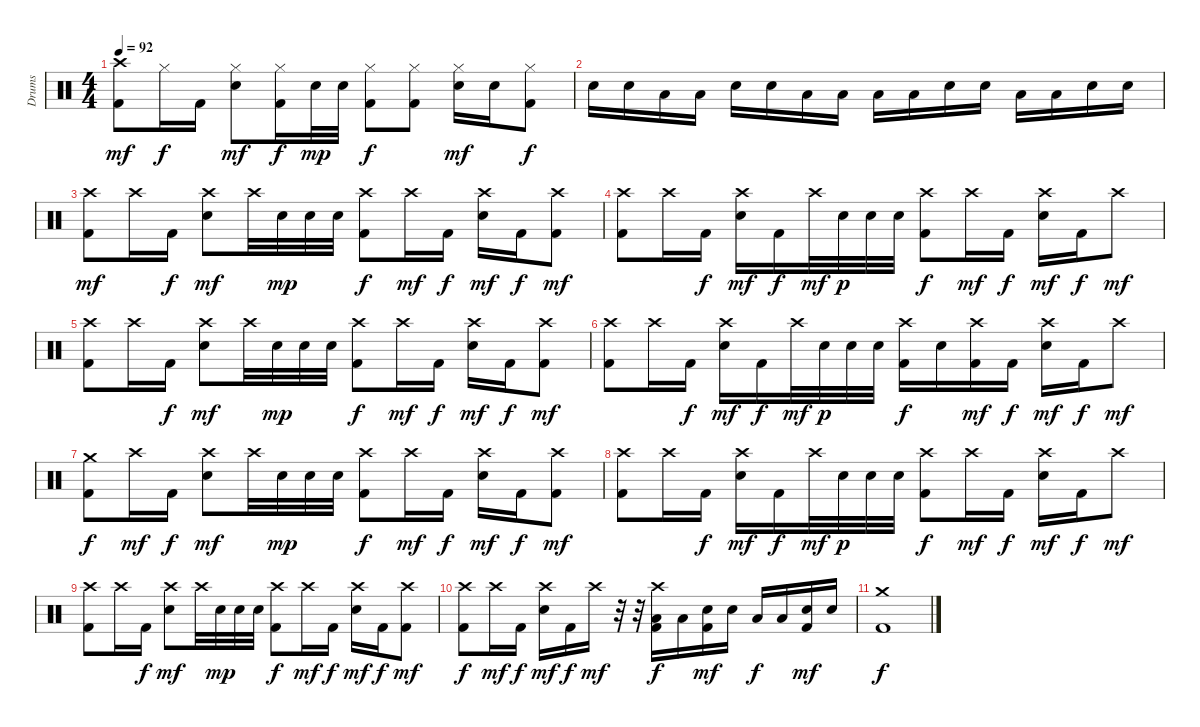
\track ("Drums" "Drums") {instrument percussion}
\staff {score}
\articulation defaults
\ts (4 4)
\tempo 92
\clef neutral
\ks c
("Crash high (hit)" "Kick (hit) 2").8{dy mf} "Hi-Hat (closed)".16{dy f} "Kick (hit) 2".16 ("Hi-Hat (closed)" "Snare (hit) 2").8{dy mf} ("Hi-Hat (closed)" "Kick (hit) 2").16{dy f} "Snare (hit) 2".32{dy mp} "Snare (hit) 2".32 ("Hi-Hat (closed)" "Kick (hit) 2").8{dy f} ("Hi-Hat (closed)" "Kick (hit) 2").8 ("Hi-Hat (closed)" "Snare (hit) 2").16{dy mf} "Snare (hit) 2".16 ("Hi-Hat (closed)" "Kick (hit) 2").8{dy f} |
"Snare (hit) 2".16 "Snare (hit) 2".16 "Low Tom (hit)".16 "Low Tom (hit)".16 "Snare (hit) 2".16 "Snare (hit) 2".16 "Low Tom (hit)".16 "Low Tom (hit)".16 "Low Tom (hit)".16 "Low Tom (hit)".16 "Snare (hit) 2".16 "Snare (hit) 2".16 "Low Tom (hit)".16 "Low Tom (hit)".16 "Snare (hit) 2".16 "Snare (hit) 2".16 |
("Crash high (hit)" "Kick (hit) 2").8{dy mf} "Crash high (hit)".16 "Kick (hit) 2".16{dy f} ("Crash high (hit)" "Snare (hit) 2").8{dy mf} "Crash high (hit)".32 "Snare (hit) 2".32{dy mp} "Snare (hit) 2".32 "Snare (hit) 2".32 ("Crash high (hit)" "Kick (hit) 2").8{dy f} "Crash high (hit)".16{dy mf} "Kick (hit) 2".16{dy f} ("Crash high (hit)" "Snare (hit) 2").16{dy mf} "Kick (hit) 2".16{dy f} ("Crash high (hit)" "Kick (hit) 2").8{dy mf} |
("Crash high (hit)" "Kick (hit) 2").8 "Crash high (hit)".16 "Kick (hit) 2".16{dy f} ("Crash high (hit)" "Snare (hit) 2").16{dy mf} "Kick (hit) 2".16{dy f} "Crash high (hit)".32{dy mf} "Snare (hit) 2".32{dy p} "Snare (hit) 2".32 "Snare (hit) 2".32 ("Crash high (hit)" "Kick (hit) 2").8{dy f} "Crash high (hit)".16{dy mf} "Kick (hit) 2".16{dy f} ("Crash high (hit)" "Snare (hit) 2").16{dy mf} "Kick (hit) 2".16{dy f} "Crash high (hit)".8{dy mf} |
("Crash high (hit)" "Kick (hit) 2").8 "Crash high (hit)".16 "Kick (hit) 2".16{dy f} ("Crash high (hit)" "Snare (hit) 2").8{dy mf} "Crash high (hit)".32 "Snare (hit) 2".32{dy mp} "Snare (hit) 2".32 "Snare (hit) 2".32 ("Crash high (hit)" "Kick (hit) 2").8{dy f} "Crash high (hit)".16{dy mf} "Kick (hit) 2".16{dy f} ("Crash high (hit)" "Snare (hit) 2").16{dy mf} "Kick (hit) 2".16{dy f} ("Crash high (hit)" "Kick (hit) 2").8{dy mf} |
("Crash high (hit)" "Kick (hit) 2").8 "Crash high (hit)".16 "Kick (hit) 2".16{dy f} ("Crash high (hit)" "Snare (hit) 2").16{dy mf} "Kick (hit) 2".16{dy f} "Crash high (hit)".32{dy mf} "Snare (hit) 2".32{dy p} "Snare (hit) 2".32 "Snare (hit) 2".32 ("Crash high (hit)" "Kick (hit) 2").16{dy f} "Snare (hit) 2".16 ("Crash high (hit)" "Kick (hit) 2").16{dy mf} "Kick (hit) 2".16{dy f} ("Crash high (hit)" "Snare (hit) 2").16{dy mf} "Kick (hit) 2".16{dy f} "Crash high (hit)".8{dy mf} |
("Crash medium (hit)" "Kick (hit) 2").8{dy f} "Crash high (hit)".16{dy mf} "Kick (hit) 2".16{dy f} ("Crash high (hit)" "Snare (hit) 2").8{dy mf} "Crash high (hit)".32 "Snare (hit) 2".32{dy mp} "Snare (hit) 2".32 "Snare (hit) 2".32 ("Crash high (hit)" "Kick (hit) 2").8{dy f} "Crash high (hit)".16{dy mf} "Kick (hit) 2".16{dy f} ("Crash high (hit)" "Snare (hit) 2").16{dy mf} "Kick (hit) 2".16{dy f} ("Crash high (hit)" "Kick (hit) 2").8{dy mf} |
("Crash high (hit)" "Kick (hit) 2").8 "Crash high (hit)".16 "Kick (hit) 2".16{dy f} ("Crash high (hit)" "Snare (hit) 2").16{dy mf} "Kick (hit) 2".16{dy f} "Crash high (hit)".32{dy mf} "Snare (hit) 2".32{dy p} "Snare (hit) 2".32 "Snare (hit) 2".32 ("Crash high (hit)" "Kick (hit) 2").8{dy f} "Crash high (hit)".16{dy mf} "Kick (hit) 2".16{dy f} ("Crash high (hit)" "Snare (hit) 2").16{dy mf} "Kick (hit) 2".16{dy f} "Crash high (hit)".8{dy mf} |
("Crash high (hit)" "Kick (hit) 2").8 "Crash high (hit)".16 "Kick (hit) 2".16{dy f} ("Crash high (hit)" "Snare (hit) 2").8{dy mf} "Crash high (hit)".32 "Snare (hit) 2".32{dy mp} "Snare (hit) 2".32 "Snare (hit) 2".32 ("Crash high (hit)" "Kick (hit) 2").8{dy f} "Crash high (hit)".16{dy mf} "Kick (hit) 2".16{dy f} ("Crash high (hit)" "Snare (hit) 2").16{dy mf} "Kick (hit) 2".16{dy f} ("Crash high (hit)" "Kick (hit) 2").8{dy mf} |
("Crash high (hit)" "Kick (hit) 2").8{dy f} "Crash high (hit)".16{dy mf} "Kick (hit) 2".16{dy f} ("Crash high (hit)" "Snare (hit) 2").16{dy mf} "Kick (hit) 2".16{dy f} "Crash high (hit)".16{dy mf} r.32 r.32 ("Crash high (hit)" "Low Tom (hit)" "Kick (hit) 2").16{dy f} "Low Tom (hit)".16 ("Snare (hit) 2" "Kick (hit) 2").16{dy mf} "Snare (hit) 2".16 "Low Tom (hit)".16{dy f} "Low Tom (hit)".16 ("Snare (hit) 2" "Kick (hit) 2").16{dy mf} "Snare (hit) 2".16 |
("Crash medium (hit)" "Kick (hit) 2").1{dy f}
